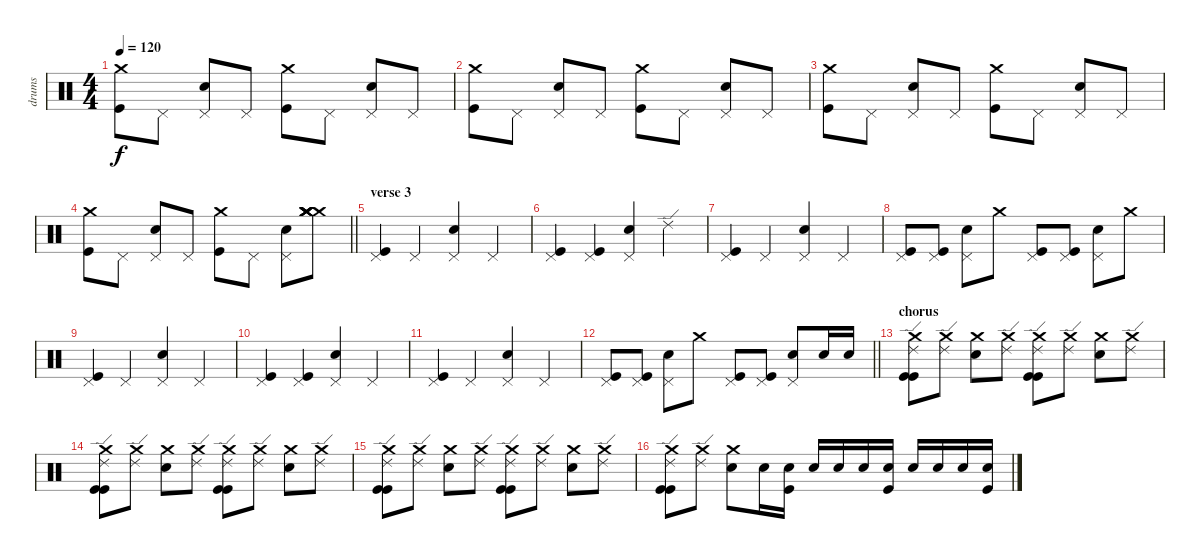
\track ("drums" "drums") {instrument percussion}
\staff {score}
\articulation defaults
\ts (4 4)
\tempo 120
\clef neutral
\ks c
("Crash medium (hit)" "Kick (hit)").8{dy f} "Pedal Hi-Hat (hit)".8 ("Pedal Hi-Hat (hit)" "Electric Snare (hit)").8 "Pedal Hi-Hat (hit)".8 ("Crash medium (hit)" "Kick (hit)").8 "Pedal Hi-Hat (hit)".8 ("Pedal Hi-Hat (hit)" "Electric Snare (hit)").8 "Pedal Hi-Hat (hit)".8 |
("Crash medium (hit)" "Kick (hit)").8 "Pedal Hi-Hat (hit)".8 ("Pedal Hi-Hat (hit)" "Electric Snare (hit)").8 "Pedal Hi-Hat (hit)".8 ("Crash medium (hit)" "Kick (hit)").8 "Pedal Hi-Hat (hit)".8 ("Pedal Hi-Hat (hit)" "Electric Snare (hit)").8 "Pedal Hi-Hat (hit)".8 |
("Crash medium (hit)" "Kick (hit)").8 "Pedal Hi-Hat (hit)".8 ("Pedal Hi-Hat (hit)" "Electric Snare (hit)").8 "Pedal Hi-Hat (hit)".8 ("Crash medium (hit)" "Kick (hit)").8 "Pedal Hi-Hat (hit)".8 ("Pedal Hi-Hat (hit)" "Electric Snare (hit)").8 "Pedal Hi-Hat (hit)".8 |
\barLineRight lightlight
("Crash medium (hit)" "Kick (hit)").8 "Pedal Hi-Hat (hit)".8 ("Pedal Hi-Hat (hit)" "Electric Snare (hit)").8 "Pedal Hi-Hat (hit)".8 ("Crash medium (hit)" "Kick (hit)").8 "Pedal Hi-Hat (hit)".8 ("Pedal Hi-Hat (hit)" "Electric Snare (hit)").8 ("Crash medium (hit)" "Crash medium (hit)" "Crash medium (hit)" "Crash medium (hit)" "Crash medium (hit)" "Crash medium (hit)").8 |
\section ("" "verse 3")
("Pedal Hi-Hat (hit)" "Kick (hit)").4 "Pedal Hi-Hat (hit)".4 ("Pedal Hi-Hat (hit)" "Electric Snare (hit)").4 "Pedal Hi-Hat (hit)".4 |
("Pedal Hi-Hat (hit)" "Kick (hit)").4 ("Pedal Hi-Hat (hit)" "Kick (hit)").4 ("Pedal Hi-Hat (hit)" "Electric Snare (hit)").4 "Ride (edge) 2".4 |
("Pedal Hi-Hat (hit)" "Kick (hit)").4 "Pedal Hi-Hat (hit)".4 ("Pedal Hi-Hat (hit)" "Electric Snare (hit)").4 "Pedal Hi-Hat (hit)".4 |
("Pedal Hi-Hat (hit)" "Kick (hit)").8 ("Pedal Hi-Hat (hit)" "Kick (hit)").8 ("Pedal Hi-Hat (hit)" "Electric Snare (hit)").8 "Crash medium (hit)".8 ("Pedal Hi-Hat (hit)" "Kick (hit)").8 ("Pedal Hi-Hat (hit)" "Kick (hit)").8 ("Pedal Hi-Hat (hit)" "Electric Snare (hit)").8 "Crash medium (hit)".8 |
("Pedal Hi-Hat (hit)" "Kick (hit)").4 "Pedal Hi-Hat (hit)".4 ("Pedal Hi-Hat (hit)" "Electric Snare (hit)").4 "Pedal Hi-Hat (hit)".4 |
("Pedal Hi-Hat (hit)" "Kick (hit)").4 ("Pedal Hi-Hat (hit)" "Kick (hit)").4 ("Pedal Hi-Hat (hit)" "Electric Snare (hit)").4 "Pedal Hi-Hat (hit)".4 |
("Pedal Hi-Hat (hit)" "Kick (hit)").4 "Pedal Hi-Hat (hit)".4 ("Pedal Hi-Hat (hit)" "Electric Snare (hit)").4 "Pedal Hi-Hat (hit)".4 |
\barLineRight lightlight
("Pedal Hi-Hat (hit)" "Kick (hit)").8 ("Pedal Hi-Hat (hit)" "Kick (hit)").8 ("Pedal Hi-Hat (hit)" "Electric Snare (hit)").8 "Crash medium (hit)".8 ("Pedal Hi-Hat (hit)" "Kick (hit)").8 ("Pedal Hi-Hat (hit)" "Kick (hit)").8 ("Pedal Hi-Hat (hit)" "Electric Snare (hit)").8 "Electric Snare (hit)".16 "Electric Snare (hit)".16 |
\section ("" "chorus")
("Crash medium (hit)" "Ride (edge) 2" "Kick (hit)" "Kick (hit)").8 ("Crash medium (hit)" "Ride (edge) 2").8 ("Crash medium (hit)" "Electric Snare (hit)").8 ("Crash medium (hit)" "Ride (edge) 2").8 ("Crash medium (hit)" "Ride (edge) 2" "Kick (hit)" "Kick (hit)").8 ("Crash medium (hit)" "Ride (edge) 2").8 ("Crash medium (hit)" "Electric Snare (hit)").8 ("Crash medium (hit)" "Ride (edge) 2").8 |
("Crash medium (hit)" "Ride (edge) 2" "Kick (hit)" "Kick (hit)").8 ("Crash medium (hit)" "Ride (edge) 2").8 ("Crash medium (hit)" "Electric Snare (hit)").8 ("Crash medium (hit)" "Ride (edge) 2").8 ("Crash medium (hit)" "Ride (edge) 2" "Kick (hit)" "Kick (hit)").8 ("Crash medium (hit)" "Ride (edge) 2").8 ("Crash medium (hit)" "Electric Snare (hit)").8 ("Crash medium (hit)" "Ride (edge) 2").8 |
("Crash medium (hit)" "Ride (edge) 2" "Kick (hit)" "Kick (hit)").8 ("Crash medium (hit)" "Ride (edge) 2").8 ("Crash medium (hit)" "Electric Snare (hit)").8 ("Crash medium (hit)" "Ride (edge) 2").8 ("Crash medium (hit)" "Ride (edge) 2" "Kick (hit)" "Kick (hit)").8 ("Crash medium (hit)" "Ride (edge) 2").8 ("Crash medium (hit)" "Electric Snare (hit)").8 ("Crash medium (hit)" "Ride (edge) 2").8 |
("Crash medium (hit)" "Ride (edge) 2" "Kick (hit)" "Kick (hit)").8 ("Crash medium (hit)" "Ride (edge) 2").8 ("Crash medium (hit)" "Electric Snare (hit)").8 "Electric Snare (hit)".16 ("Electric Snare (hit)" "Kick (hit)").16 "Electric Snare (hit)".16 "Electric Snare (hit)".16 "Electric Snare (hit)".16 ("Electric Snare (hit)" "Kick (hit)").16 "Electric Snare (hit)".16 "Electric Snare (hit)".16 "Electric Snare (hit)".16 ("Electric Snare (hit)" "Kick (hit)").16
